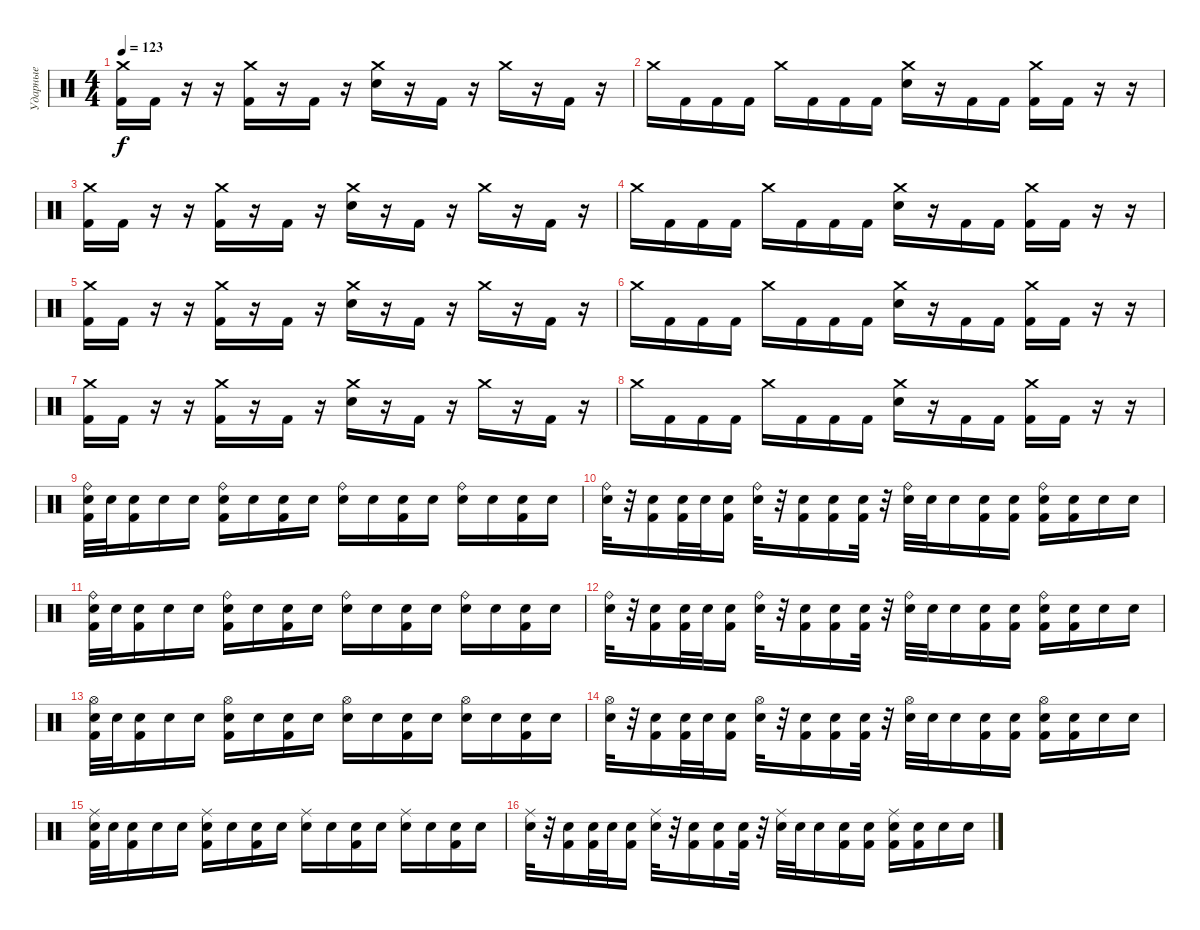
\track ("Ударные" "Ударные") {instrument percussion}
\staff {score}
\articulation defaults
\ts (4 4)
\tempo 123
\clef neutral
\ks c
("Crash medium (hit)" "Kick (hit) 2").16{dy f} "Kick (hit) 2".16 r.16 r.16 ("Crash medium (hit)" "Kick (hit) 2").16 r.16 "Kick (hit) 2".16 r.16 ("Crash medium (hit)" "Electric Snare (hit)").16 r.16 "Kick (hit) 2".16 r.16 "Crash medium (hit)".16 r.16 "Kick (hit) 2".16 r.16 |
"Crash medium (hit)".16 "Kick (hit) 2".16 "Kick (hit) 2".16 "Kick (hit) 2".16 "Crash medium (hit)".16 "Kick (hit) 2".16 "Kick (hit) 2".16 "Kick (hit) 2".16 ("Crash medium (hit)" "Electric Snare (hit)").16 r.16 "Kick (hit) 2".16 "Kick (hit) 2".16 ("Crash medium (hit)" "Kick (hit) 2").16 "Kick (hit) 2".16 r.16 r.16 |
("Crash medium (hit)" "Kick (hit) 2").16 "Kick (hit) 2".16 r.16 r.16 ("Crash medium (hit)" "Kick (hit) 2").16 r.16 "Kick (hit) 2".16 r.16 ("Crash medium (hit)" "Electric Snare (hit)").16 r.16 "Kick (hit) 2".16 r.16 "Crash medium (hit)".16 r.16 "Kick (hit) 2".16 r.16 |
"Crash medium (hit)".16 "Kick (hit) 2".16 "Kick (hit) 2".16 "Kick (hit) 2".16 "Crash medium (hit)".16 "Kick (hit) 2".16 "Kick (hit) 2".16 "Kick (hit) 2".16 ("Crash medium (hit)" "Electric Snare (hit)").16 r.16 "Kick (hit) 2".16 "Kick (hit) 2".16 ("Crash medium (hit)" "Kick (hit) 2").16 "Kick (hit) 2".16 r.16 r.16 |
("Crash medium (hit)" "Kick (hit) 2").16 "Kick (hit) 2".16 r.16 r.16 ("Crash medium (hit)" "Kick (hit) 2").16 r.16 "Kick (hit) 2".16 r.16 ("Crash medium (hit)" "Electric Snare (hit)").16 r.16 "Kick (hit) 2".16 r.16 "Crash medium (hit)".16 r.16 "Kick (hit) 2".16 r.16 |
"Crash medium (hit)".16 "Kick (hit) 2".16 "Kick (hit) 2".16 "Kick (hit) 2".16 "Crash medium (hit)".16 "Kick (hit) 2".16 "Kick (hit) 2".16 "Kick (hit) 2".16 ("Crash medium (hit)" "Electric Snare (hit)").16 r.16 "Kick (hit) 2".16 "Kick (hit) 2".16 ("Crash medium (hit)" "Kick (hit) 2").16 "Kick (hit) 2".16 r.16 r.16 |
("Crash medium (hit)" "Kick (hit) 2").16 "Kick (hit) 2".16 r.16 r.16 ("Crash medium (hit)" "Kick (hit) 2").16 r.16 "Kick (hit) 2".16 r.16 ("Crash medium (hit)" "Electric Snare (hit)").16 r.16 "Kick (hit) 2".16 r.16 "Crash medium (hit)".16 r.16 "Kick (hit) 2".16 r.16 |
"Crash medium (hit)".16 "Kick (hit) 2".16 "Kick (hit) 2".16 "Kick (hit) 2".16 "Crash medium (hit)".16 "Kick (hit) 2".16 "Kick (hit) 2".16 "Kick (hit) 2".16 ("Crash medium (hit)" "Electric Snare (hit)").16 r.16 "Kick (hit) 2".16 "Kick (hit) 2".16 ("Crash medium (hit)" "Kick (hit) 2").16 "Kick (hit) 2".16 r.16 r.16 |
("Ride (bell)" "Electric Snare (hit)" "Kick (hit) 2").32 "Electric Snare (hit)".32 ("Electric Snare (hit)" "Kick (hit) 2").16 "Electric Snare (hit)".16 "Electric Snare (hit)".16 ("Ride (bell)" "Electric Snare (hit)" "Kick (hit) 2").16 "Electric Snare (hit)".16 ("Electric Snare (hit)" "Kick (hit) 2").16 "Electric Snare (hit)".16 ("Ride (bell)" "Electric Snare (hit)").16 "Electric Snare (hit)".16 ("Electric Snare (hit)" "Kick (hit) 2").16 "Electric Snare (hit)".16 ("Ride (bell)" "Electric Snare (hit)").16 "Electric Snare (hit)".16 ("Electric Snare (hit)" "Kick (hit) 2").16 "Electric Snare (hit)".16 |
("Ride (bell)" "Electric Snare (hit)").32 r.32 ("Electric Snare (hit)" "Kick (hit) 2").16 ("Electric Snare (hit)" "Kick (hit) 2").32 "Electric Snare (hit)".32 ("Electric Snare (hit)" "Kick (hit) 2").16 ("Ride (bell)" "Electric Snare (hit)").32 r.32 ("Electric Snare (hit)" "Kick (hit) 2").16 ("Electric Snare (hit)" "Kick (hit) 2").16 ("Electric Snare (hit)" "Kick (hit) 2").32 r.32 ("Ride (bell)" "Electric Snare (hit)").32 "Electric Snare (hit)".32 "Electric Snare (hit)".16 ("Electric Snare (hit)" "Kick (hit) 2").16 ("Electric Snare (hit)" "Kick (hit) 2").16 ("Ride (bell)" "Electric Snare (hit)" "Kick (hit) 2").16 ("Electric Snare (hit)" "Kick (hit) 2").16 "Electric Snare (hit)".16 "Electric Snare (hit)".16 |
("Ride (bell)" "Electric Snare (hit)" "Kick (hit) 2").32 "Electric Snare (hit)".32 ("Electric Snare (hit)" "Kick (hit) 2").16 "Electric Snare (hit)".16 "Electric Snare (hit)".16 ("Ride (bell)" "Electric Snare (hit)" "Kick (hit) 2").16 "Electric Snare (hit)".16 ("Electric Snare (hit)" "Kick (hit) 2").16 "Electric Snare (hit)".16 ("Ride (bell)" "Electric Snare (hit)").16 "Electric Snare (hit)".16 ("Electric Snare (hit)" "Kick (hit) 2").16 "Electric Snare (hit)".16 ("Ride (bell)" "Electric Snare (hit)").16 "Electric Snare (hit)".16 ("Electric Snare (hit)" "Kick (hit) 2").16 "Electric Snare (hit)".16 |
("Ride (bell)" "Electric Snare (hit)").32 r.32 ("Electric Snare (hit)" "Kick (hit) 2").16 ("Electric Snare (hit)" "Kick (hit) 2").32 "Electric Snare (hit)".32 ("Electric Snare (hit)" "Kick (hit) 2").16 ("Ride (bell)" "Electric Snare (hit)").32 r.32 ("Electric Snare (hit)" "Kick (hit) 2").16 ("Electric Snare (hit)" "Kick (hit) 2").16 ("Electric Snare (hit)" "Kick (hit) 2").32 r.32 ("Ride (bell)" "Electric Snare (hit)").32 "Electric Snare (hit)".32 "Electric Snare (hit)".16 ("Electric Snare (hit)" "Kick (hit) 2").16 ("Electric Snare (hit)" "Kick (hit) 2").16 ("Ride (bell)" "Electric Snare (hit)" "Kick (hit) 2").16 ("Electric Snare (hit)" "Kick (hit) 2").16 "Electric Snare (hit)".16 "Electric Snare (hit)".16 |
("Hi-Hat (open)" "Electric Snare (hit)" "Kick (hit) 2").32 "Electric Snare (hit)".32 ("Electric Snare (hit)" "Kick (hit) 2").16 "Electric Snare (hit)".16 "Electric Snare (hit)".16 ("Hi-Hat (open)" "Electric Snare (hit)" "Kick (hit) 2").16 "Electric Snare (hit)".16 ("Electric Snare (hit)" "Kick (hit) 2").16 "Electric Snare (hit)".16 ("Hi-Hat (open)" "Electric Snare (hit)").16 "Electric Snare (hit)".16 ("Electric Snare (hit)" "Kick (hit) 2").16 "Electric Snare (hit)".16 ("Hi-Hat (open)" "Electric Snare (hit)").16 "Electric Snare (hit)".16 ("Electric Snare (hit)" "Kick (hit) 2").16 "Electric Snare (hit)".16 |
("Hi-Hat (open)" "Electric Snare (hit)").32 r.32 ("Electric Snare (hit)" "Kick (hit) 2").16 ("Electric Snare (hit)" "Kick (hit) 2").32 "Electric Snare (hit)".32 ("Electric Snare (hit)" "Kick (hit) 2").16 ("Hi-Hat (open)" "Electric Snare (hit)").32 r.32 ("Electric Snare (hit)" "Kick (hit) 2").16 ("Electric Snare (hit)" "Kick (hit) 2").16 ("Electric Snare (hit)" "Kick (hit) 2").32 r.32 ("Hi-Hat (open)" "Electric Snare (hit)").32 "Electric Snare (hit)".32 "Electric Snare (hit)".16 ("Electric Snare (hit)" "Kick (hit) 2").16 ("Electric Snare (hit)" "Kick (hit) 2").16 ("Hi-Hat (open)" "Electric Snare (hit)" "Kick (hit) 2").16 ("Electric Snare (hit)" "Kick (hit) 2").16 "Electric Snare (hit)".16 "Electric Snare (hit)".16 |
("Ride (middle)" "Electric Snare (hit)" "Kick (hit) 2").32 "Electric Snare (hit)".32 ("Electric Snare (hit)" "Kick (hit) 2").16 "Electric Snare (hit)".16 "Electric Snare (hit)".16 ("Ride (middle)" "Electric Snare (hit)" "Kick (hit) 2").16 "Electric Snare (hit)".16 ("Electric Snare (hit)" "Kick (hit) 2").16 "Electric Snare (hit)".16 ("Ride (middle)" "Electric Snare (hit)").16 "Electric Snare (hit)".16 ("Electric Snare (hit)" "Kick (hit) 2").16 "Electric Snare (hit)".16 ("Ride (middle)" "Electric Snare (hit)").16 "Electric Snare (hit)".16 ("Electric Snare (hit)" "Kick (hit) 2").16 "Electric Snare (hit)".16 |
("Ride (middle)" "Electric Snare (hit)").32 r.32 ("Electric Snare (hit)" "Kick (hit) 2").16 ("Electric Snare (hit)" "Kick (hit) 2").32 "Electric Snare (hit)".32 ("Electric Snare (hit)" "Kick (hit) 2").16 ("Ride (middle)" "Electric Snare (hit)").32 r.32 ("Electric Snare (hit)" "Kick (hit) 2").16 ("Electric Snare (hit)" "Kick (hit) 2").16 ("Electric Snare (hit)" "Kick (hit) 2").32 r.32 ("Ride (middle)" "Electric Snare (hit)").32 "Electric Snare (hit)".32 "Electric Snare (hit)".16 ("Electric Snare (hit)" "Kick (hit) 2").16 ("Electric Snare (hit)" "Kick (hit) 2").16 ("Ride (middle)" "Electric Snare (hit)" "Kick (hit) 2").16 ("Electric Snare (hit)" "Kick (hit) 2").16 "Electric Snare (hit)".16 "Electric Snare (hit)".16
